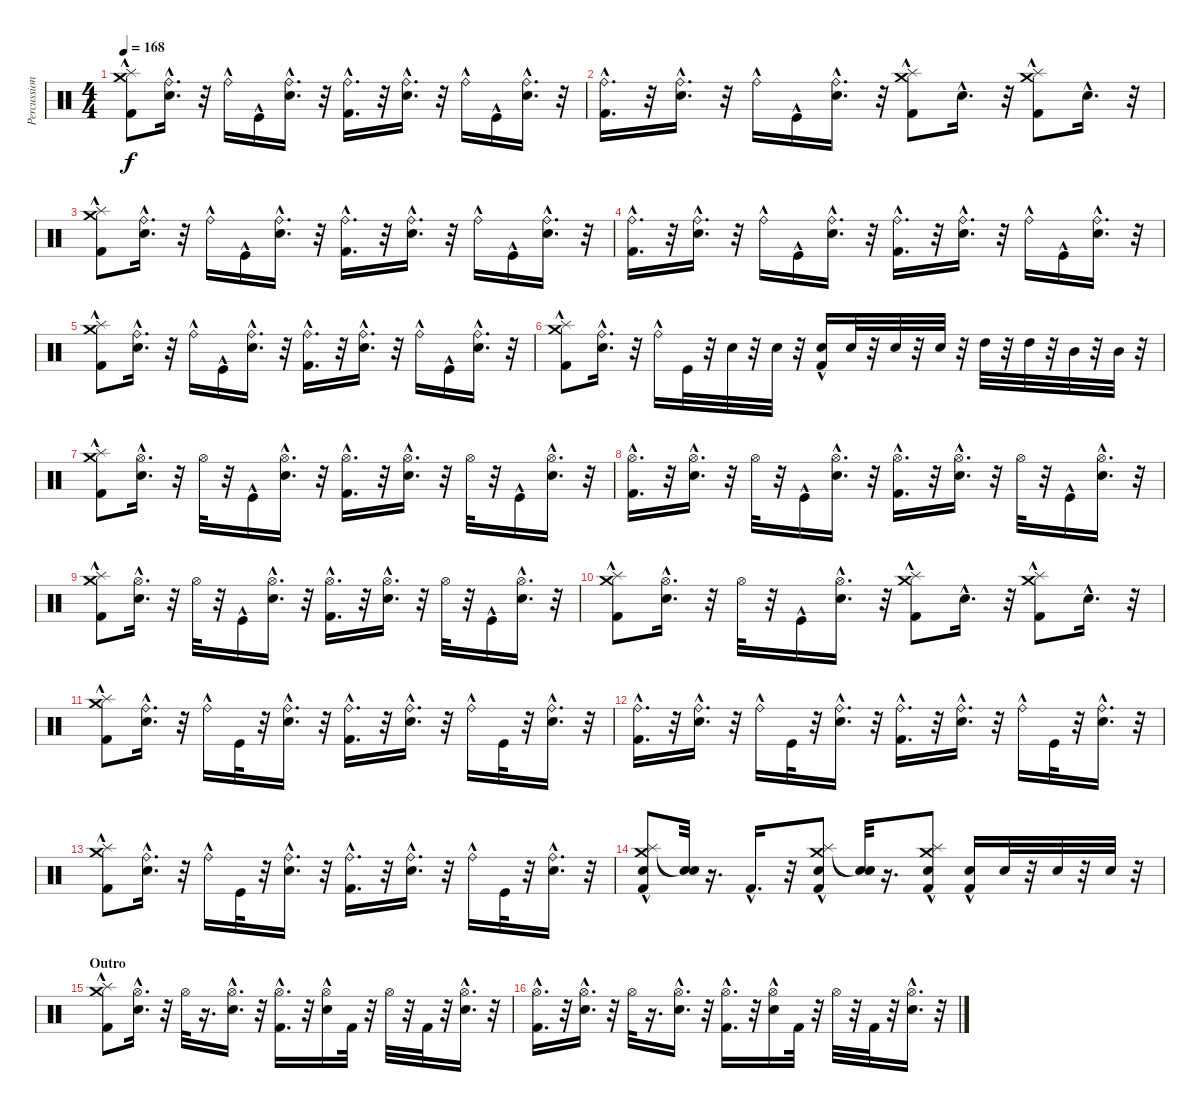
\track ("Percussion" "Percussion") {instrument percussion}
\staff {score}
\articulation defaults
\ts (4 4)
\tempo 168
\clef neutral
\ks c
("Kick (hit) 2"{hac} "Splash (hit)" "Crash medium (hit)").8{dy f} ("Electric Snare (hit)"{hac} "Ride (bell)"{hac}).16{d} r.32 "Ride (bell)"{hac}.16 "Kick (hit)"{hac}.16 ("Electric Snare (hit)"{hac} "Ride (bell)"{hac}).16{d} r.32 ("Kick (hit) 2"{hac} "Ride (bell)"{hac}).16{d} r.32 ("Electric Snare (hit)"{hac} "Ride (bell)"{hac}).16{d} r.32 "Ride (bell)"{hac}.16 "Kick (hit)"{hac}.16 ("Electric Snare (hit)"{hac} "Ride (bell)"{hac}).16{d} r.32 |
("Kick (hit) 2"{hac} "Ride (bell)"{hac}).16{d} r.32 ("Electric Snare (hit)"{hac} "Ride (bell)"{hac}).16{d} r.32 "Ride (bell)"{hac}.16 "Kick (hit)"{hac}.16 ("Electric Snare (hit)"{hac} "Ride (bell)"{hac}).16{d} r.32 ("Kick (hit) 2"{hac} "Splash (hit)" "Crash medium (hit)").8 "Electric Snare (hit)"{hac}.16{d} r.32 ("Splash (hit)" "Crash medium (hit)" "Kick (hit) 2"{hac}).8 "Electric Snare (hit)"{hac}.16{d} r.32 |
("Splash (hit)" "Crash medium (hit)" "Kick (hit) 2"{hac}).8 ("Ride (bell)"{hac} "Electric Snare (hit)"{hac}).16{d} r.32 "Ride (bell)"{hac}.16 "Kick (hit)"{hac}.16 ("Ride (bell)"{hac} "Electric Snare (hit)"{hac}).16{d} r.32 ("Ride (bell)"{hac} "Kick (hit) 2"{hac}).16{d} r.32 ("Ride (bell)"{hac} "Electric Snare (hit)"{hac}).16{d} r.32 "Ride (bell)"{hac}.16 "Kick (hit)"{hac}.16 ("Ride (bell)"{hac} "Electric Snare (hit)"{hac}).16{d} r.32 |
("Kick (hit) 2"{hac} "Ride (bell)"{hac}).16{d} r.32 ("Electric Snare (hit)"{hac} "Ride (bell)"{hac}).16{d} r.32 "Ride (bell)"{hac}.16 "Kick (hit)"{hac}.16 ("Electric Snare (hit)"{hac} "Ride (bell)"{hac}).16{d} r.32 ("Kick (hit) 2"{hac} "Ride (bell)"{hac}).16{d} r.32 ("Electric Snare (hit)"{hac} "Ride (bell)"{hac}).16{d} r.32 "Ride (bell)"{hac}.16 "Kick (hit)"{hac}.16 ("Electric Snare (hit)"{hac} "Ride (bell)"{hac}).16{d} r.32 |
("Kick (hit) 2"{hac} "Splash (hit)" "Crash medium (hit)").8 ("Electric Snare (hit)"{hac} "Ride (bell)"{hac}).16{d} r.32 "Ride (bell)"{hac}.16 "Kick (hit)"{hac}.16 ("Electric Snare (hit)"{hac} "Ride (bell)"{hac}).16{d} r.32 ("Kick (hit) 2"{hac} "Ride (bell)"{hac}).16{d} r.32 ("Electric Snare (hit)"{hac} "Ride (bell)"{hac}).16{d} r.32 "Ride (bell)"{hac}.16 "Kick (hit)"{hac}.16 ("Electric Snare (hit)"{hac} "Ride (bell)"{hac}).16{d} r.32 |
("Splash (hit)" "Crash medium (hit)" "Kick (hit) 2"{hac}).8 ("Electric Snare (hit)"{hac} "Ride (bell)"{hac}).16{d} r.32 "Ride (bell)"{hac}.16 "Kick (hit)".32 r.32 "Electric Snare (hit)".32 r.32 "Electric Snare (hit)".32 r.32 ("Electric Snare (hit)" "Kick (hit) 2"{hac}).16 "Snare (hit) 2".32 r.32 "Snare (hit) 2".32 r.32 "Snare (hit) 2".32 r.32 "High Tom (hit)".32 r.32 "High Tom (hit)".32 r.32 "Mid Tom (hit)".32 r.32 "Mid Tom (hit)".32 r.32 |
("Splash (hit)" "Crash medium (hit)" "Kick (hit) 2"{hac}).8 ("Electric Snare (hit)"{hac} "Hi-Hat (open)").16{d} r.32 "Hi-Hat (open)".32 r.32 "Kick (hit)"{hac}.16 ("Electric Snare (hit)"{hac} "Hi-Hat (open)").16{d} r.32 ("Kick (hit) 2"{hac} "Hi-Hat (open)").16{d} r.32 ("Electric Snare (hit)"{hac} "Hi-Hat (open)").16{d} r.32 "Hi-Hat (open)".32 r.32 "Kick (hit)"{hac}.16 ("Electric Snare (hit)"{hac} "Hi-Hat (open)").16{d} r.32 |
("Kick (hit) 2"{hac} "Hi-Hat (open)").16{d} r.32 ("Electric Snare (hit)"{hac} "Hi-Hat (open)").16{d} r.32 "Hi-Hat (open)".32 r.32 "Kick (hit)"{hac}.16 ("Electric Snare (hit)"{hac} "Hi-Hat (open)").16{d} r.32 ("Kick (hit) 2"{hac} "Hi-Hat (open)").16{d} r.32 ("Electric Snare (hit)"{hac} "Hi-Hat (open)").16{d} r.32 "Hi-Hat (open)".32 r.32 "Kick (hit)"{hac}.16 ("Electric Snare (hit)"{hac} "Hi-Hat (open)").16{d} r.32 |
("Kick (hit) 2"{hac} "Splash (hit)" "Crash medium (hit)").8 ("Electric Snare (hit)"{hac} "Hi-Hat (open)").16{d} r.32 "Hi-Hat (open)".32 r.32 "Kick (hit)"{hac}.16 ("Electric Snare (hit)"{hac} "Hi-Hat (open)").16{d} r.32 ("Kick (hit) 2"{hac} "Hi-Hat (open)").16{d} r.32 ("Electric Snare (hit)"{hac} "Hi-Hat (open)").16{d} r.32 "Hi-Hat (open)".32 r.32 "Kick (hit)"{hac}.16 ("Electric Snare (hit)"{hac} "Hi-Hat (open)").16{d} r.32 |
("Kick (hit) 2"{hac} "Splash (hit)" "Crash medium (hit)").8 ("Electric Snare (hit)"{hac} "Hi-Hat (open)").16{d} r.32 "Hi-Hat (open)".32 r.32 "Kick (hit)"{hac}.16 ("Electric Snare (hit)"{hac} "Hi-Hat (open)").16{d} r.32 ("Kick (hit) 2"{hac} "Splash (hit)" "Crash medium (hit)").8 "Electric Snare (hit)"{hac}.16{d} r.32 ("Splash (hit)" "Crash medium (hit)" "Kick (hit) 2"{hac}).8 "Electric Snare (hit)"{hac}.16{d} r.32 |
("Crash medium (hit)" "Splash (hit)" "Kick (hit) 2"{hac}).8 ("Electric Snare (hit)"{hac} "Ride (bell)"{hac}).16{d} r.32 "Ride (bell)"{hac}.16 "Kick (hit)".32 r.32 ("Electric Snare (hit)"{hac} "Ride (bell)"{hac}).16{d} r.32 ("Kick (hit) 2"{hac} "Ride (bell)"{hac}).16{d} r.32 ("Electric Snare (hit)"{hac} "Ride (bell)"{hac}).16{d} r.32 "Ride (bell)"{hac}.16 "Kick (hit)".32 r.32 ("Electric Snare (hit)"{hac} "Ride (bell)"{hac}).16{d} r.32 |
("Kick (hit) 2"{hac} "Ride (bell)"{hac}).16{d} r.32 ("Electric Snare (hit)"{hac} "Ride (bell)"{hac}).16{d} r.32 "Ride (bell)"{hac}.16 "Kick (hit)".32 r.32 ("Electric Snare (hit)"{hac} "Ride (bell)"{hac}).16{d} r.32 ("Kick (hit) 2"{hac} "Ride (bell)"{hac}).16{d} r.32 ("Electric Snare (hit)"{hac} "Ride (bell)"{hac}).16{d} r.32 "Ride (bell)"{hac}.16 "Kick (hit)".32 r.32 ("Electric Snare (hit)"{hac} "Ride (bell)"{hac}).16{d} r.32 |
("Crash medium (hit)" "Splash (hit)" "Kick (hit) 2"{hac}).8 ("Electric Snare (hit)"{hac} "Ride (bell)"{hac}).16{d} r.32 "Ride (bell)"{hac}.16 "Kick (hit)".32 r.32 ("Electric Snare (hit)"{hac} "Ride (bell)"{hac}).16{d} r.32 ("Kick (hit) 2"{hac} "Ride (bell)"{hac}).16{d} r.32 ("Electric Snare (hit)"{hac} "Ride (bell)"{hac}).16{d} r.32 "Ride (bell)"{hac}.16 "Kick (hit)".32 r.32 ("Electric Snare (hit)"{hac} "Ride (bell)"{hac}).16{d} r.32 |
("Crash medium (hit)" "Splash (hit)" "Kick (hit) 2"{hac} "Electric Snare (hit)"{hac}).8 ("Snare (hit)"{t} "Snare (hit)"{t}).32 r.16{d} "Kick (hit) 2"{hac}.16{d} r.32 ("Splash (hit)" "Crash medium (hit)" "Kick (hit) 2"{hac} "Electric Snare (hit)"{hac}).8 ("Snare (hit)"{t} "Snare (hit)"{t}).32 r.16{d} ("Splash (hit)" "Crash medium (hit)" "Kick (hit) 2"{hac} "Electric Snare (hit)"{hac}).8 ("Electric Snare (hit)" "Kick (hit) 2"{hac}).16 "Electric Snare (hit)".32 r.32 "Electric Snare (hit)".32 r.32 "Electric Snare (hit)".32 r.32 |
\section ("" "Outro")
("Crash medium (hit)" "Splash (hit)" "Kick (hit) 2"{hac}).8 ("Electric Snare (hit)"{hac} "Hi-Hat (open)").16{d} r.32 "Hi-Hat (open)".32 r.16{d} ("Electric Snare (hit)"{hac} "Hi-Hat (open)").16{d} r.32 ("Kick (hit) 2"{hac} "Hi-Hat (open)").16{d} r.32 ("Electric Snare (hit)"{hac} "Hi-Hat (open)").16 "Kick (hit) 2".32 r.32 "Hi-Hat (open)".32 r.32 "Kick (hit) 2".32 r.32 ("Electric Snare (hit)"{hac} "Hi-Hat (open)").16{d} r.32 |
("Kick (hit) 2"{hac} "Hi-Hat (open)").16{d} r.32 ("Electric Snare (hit)"{hac} "Hi-Hat (open)").16{d} r.32 "Hi-Hat (open)".32 r.16{d} ("Electric Snare (hit)"{hac} "Hi-Hat (open)").16{d} r.32 ("Kick (hit) 2"{hac} "Hi-Hat (open)").16{d} r.32 ("Electric Snare (hit)"{hac} "Hi-Hat (open)").16 "Kick (hit) 2".32 r.32 "Hi-Hat (open)".32 r.32 "Kick (hit) 2".32 r.32 ("Electric Snare (hit)"{hac} "Hi-Hat (open)").16{d} r.32
